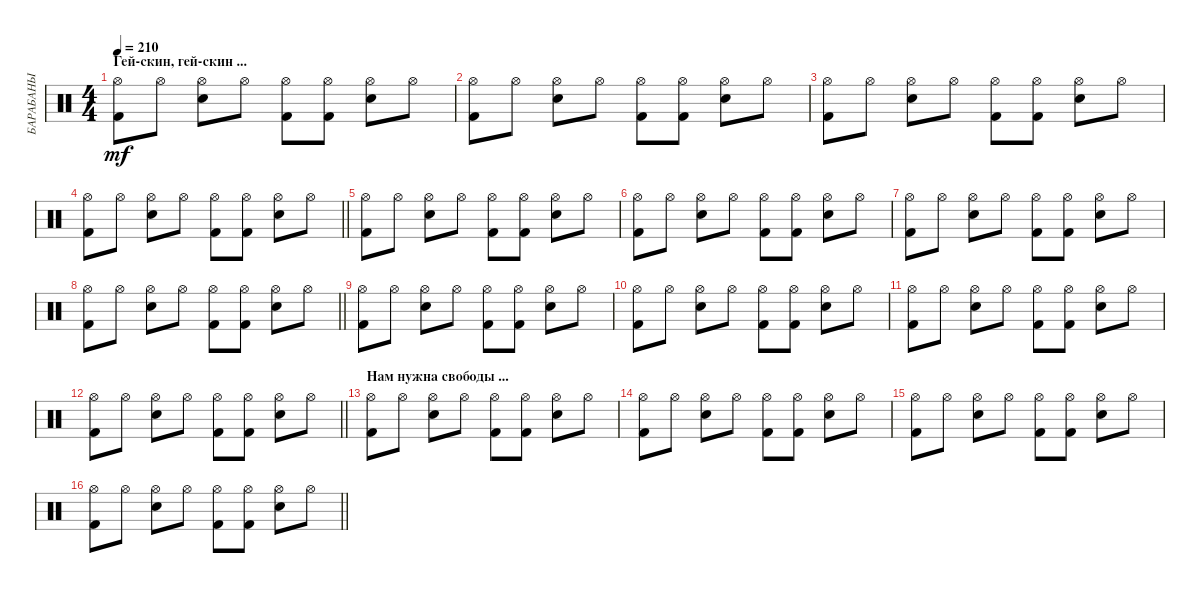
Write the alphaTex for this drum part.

\track ("БАРАБАНЫ" "БАРАБАНЫ") {instrument percussion}
\staff {score}
\articulation defaults
\ts (4 4)
\section ("" "Гей-скин, гей-скин ...")
\tempo 210
\clef neutral
\ks c
("Hi-Hat (open)" "Kick (hit) 2").8{dy mf} "Hi-Hat (open)".8 ("Hi-Hat (open)" "Snare (hit) 2").8 "Hi-Hat (open)".8 ("Hi-Hat (open)" "Kick (hit) 2").8 ("Hi-Hat (open)" "Kick (hit) 2").8 ("Hi-Hat (open)" "Snare (hit) 2").8 "Hi-Hat (open)".8 |
("Hi-Hat (open)" "Kick (hit) 2").8 "Hi-Hat (open)".8 ("Hi-Hat (open)" "Snare (hit) 2").8 "Hi-Hat (open)".8 ("Hi-Hat (open)" "Kick (hit) 2").8 ("Hi-Hat (open)" "Kick (hit) 2").8 ("Hi-Hat (open)" "Snare (hit) 2").8 "Hi-Hat (open)".8 |
("Hi-Hat (open)" "Kick (hit) 2").8 "Hi-Hat (open)".8 ("Hi-Hat (open)" "Snare (hit) 2").8 "Hi-Hat (open)".8 ("Hi-Hat (open)" "Kick (hit) 2").8 ("Hi-Hat (open)" "Kick (hit) 2").8 ("Hi-Hat (open)" "Snare (hit) 2").8 "Hi-Hat (open)".8 |
\barLineRight lightlight
("Hi-Hat (open)" "Kick (hit) 2").8 "Hi-Hat (open)".8 ("Hi-Hat (open)" "Snare (hit) 2").8 "Hi-Hat (open)".8 ("Hi-Hat (open)" "Kick (hit) 2").8 ("Hi-Hat (open)" "Kick (hit) 2").8 ("Hi-Hat (open)" "Snare (hit) 2").8 "Hi-Hat (open)".8 |
("Hi-Hat (open)" "Kick (hit) 2").8 "Hi-Hat (open)".8 ("Hi-Hat (open)" "Snare (hit) 2").8 "Hi-Hat (open)".8 ("Hi-Hat (open)" "Kick (hit) 2").8 ("Hi-Hat (open)" "Kick (hit) 2").8 ("Hi-Hat (open)" "Snare (hit) 2").8 "Hi-Hat (open)".8 |
("Hi-Hat (open)" "Kick (hit) 2").8 "Hi-Hat (open)".8 ("Hi-Hat (open)" "Snare (hit) 2").8 "Hi-Hat (open)".8 ("Hi-Hat (open)" "Kick (hit) 2").8 ("Hi-Hat (open)" "Kick (hit) 2").8 ("Hi-Hat (open)" "Snare (hit) 2").8 "Hi-Hat (open)".8 |
("Hi-Hat (open)" "Kick (hit) 2").8 "Hi-Hat (open)".8 ("Hi-Hat (open)" "Snare (hit) 2").8 "Hi-Hat (open)".8 ("Hi-Hat (open)" "Kick (hit) 2").8 ("Hi-Hat (open)" "Kick (hit) 2").8 ("Hi-Hat (open)" "Snare (hit) 2").8 "Hi-Hat (open)".8 |
\barLineRight lightlight
("Hi-Hat (open)" "Kick (hit) 2").8 "Hi-Hat (open)".8 ("Hi-Hat (open)" "Snare (hit) 2").8 "Hi-Hat (open)".8 ("Hi-Hat (open)" "Kick (hit) 2").8 ("Hi-Hat (open)" "Kick (hit) 2").8 ("Hi-Hat (open)" "Snare (hit) 2").8 "Hi-Hat (open)".8 |
("Hi-Hat (open)" "Kick (hit) 2").8 "Hi-Hat (open)".8 ("Hi-Hat (open)" "Snare (hit) 2").8 "Hi-Hat (open)".8 ("Hi-Hat (open)" "Kick (hit) 2").8 ("Hi-Hat (open)" "Kick (hit) 2").8 ("Hi-Hat (open)" "Snare (hit) 2").8 "Hi-Hat (open)".8 |
("Hi-Hat (open)" "Kick (hit) 2").8 "Hi-Hat (open)".8 ("Hi-Hat (open)" "Snare (hit) 2").8 "Hi-Hat (open)".8 ("Hi-Hat (open)" "Kick (hit) 2").8 ("Hi-Hat (open)" "Kick (hit) 2").8 ("Hi-Hat (open)" "Snare (hit) 2").8 "Hi-Hat (open)".8 |
("Hi-Hat (open)" "Kick (hit) 2").8 "Hi-Hat (open)".8 ("Hi-Hat (open)" "Snare (hit) 2").8 "Hi-Hat (open)".8 ("Hi-Hat (open)" "Kick (hit) 2").8 ("Hi-Hat (open)" "Kick (hit) 2").8 ("Hi-Hat (open)" "Snare (hit) 2").8 "Hi-Hat (open)".8 |
\barLineRight lightlight
("Hi-Hat (open)" "Kick (hit) 2").8 "Hi-Hat (open)".8 ("Hi-Hat (open)" "Snare (hit) 2").8 "Hi-Hat (open)".8 ("Hi-Hat (open)" "Kick (hit) 2").8 ("Hi-Hat (open)" "Kick (hit) 2").8 ("Hi-Hat (open)" "Snare (hit) 2").8 "Hi-Hat (open)".8 |
\section ("" "Нам нужна свободы ...")
("Hi-Hat (open)" "Kick (hit) 2").8 "Hi-Hat (open)".8 ("Hi-Hat (open)" "Snare (hit) 2").8 "Hi-Hat (open)".8 ("Hi-Hat (open)" "Kick (hit) 2").8 ("Hi-Hat (open)" "Kick (hit) 2").8 ("Hi-Hat (open)" "Snare (hit) 2").8 "Hi-Hat (open)".8 |
("Hi-Hat (open)" "Kick (hit) 2").8 "Hi-Hat (open)".8 ("Hi-Hat (open)" "Snare (hit) 2").8 "Hi-Hat (open)".8 ("Hi-Hat (open)" "Kick (hit) 2").8 ("Hi-Hat (open)" "Kick (hit) 2").8 ("Hi-Hat (open)" "Snare (hit) 2").8 "Hi-Hat (open)".8 |
("Hi-Hat (open)" "Kick (hit) 2").8 "Hi-Hat (open)".8 ("Hi-Hat (open)" "Snare (hit) 2").8 "Hi-Hat (open)".8 ("Hi-Hat (open)" "Kick (hit) 2").8 ("Hi-Hat (open)" "Kick (hit) 2").8 ("Hi-Hat (open)" "Snare (hit) 2").8 "Hi-Hat (open)".8 |
\barLineRight lightlight
("Hi-Hat (open)" "Kick (hit) 2").8 "Hi-Hat (open)".8 ("Hi-Hat (open)" "Snare (hit) 2").8 "Hi-Hat (open)".8 ("Hi-Hat (open)" "Kick (hit) 2").8 ("Hi-Hat (open)" "Kick (hit) 2").8 ("Hi-Hat (open)" "Snare (hit) 2").8 "Hi-Hat (open)".8
